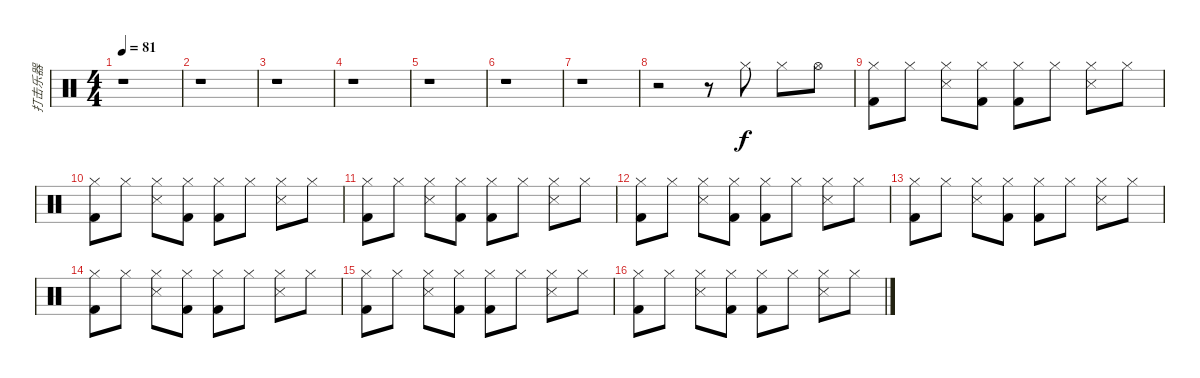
\track ("打击乐器" "打击乐器") {instrument percussion}
\staff {score}
\articulation defaults
\ts (4 4)
\tempo 81
\clef neutral
\ks c
r.1{dy f} |
r.1 |
r.1 |
r.1 |
r.1 |
r.1 |
r.1 |
r.2 r.8 "Hi-Hat (closed)".8 "Hi-Hat (closed)".8 "Hi-Hat (open)".8 |
("Kick (hit) 2" "Hi-Hat (closed)").8 "Hi-Hat (closed)".8 ("Snare (side stick) 3" "Hi-Hat (closed)").8 ("Kick (hit) 2" "Hi-Hat (closed)").8 ("Kick (hit) 2" "Hi-Hat (closed)").8 "Hi-Hat (closed)".8 ("Snare (side stick) 3" "Hi-Hat (closed)").8 "Hi-Hat (closed)".8 |
("Kick (hit) 2" "Hi-Hat (closed)").8 "Hi-Hat (closed)".8 ("Snare (side stick) 3" "Hi-Hat (closed)").8 ("Kick (hit) 2" "Hi-Hat (closed)").8 ("Kick (hit) 2" "Hi-Hat (closed)").8 "Hi-Hat (closed)".8 ("Snare (side stick) 3" "Hi-Hat (closed)").8 "Hi-Hat (closed)".8 |
("Kick (hit) 2" "Hi-Hat (closed)").8 "Hi-Hat (closed)".8 ("Snare (side stick) 3" "Hi-Hat (closed)").8 ("Kick (hit) 2" "Hi-Hat (closed)").8 ("Kick (hit) 2" "Hi-Hat (closed)").8 "Hi-Hat (closed)".8 ("Snare (side stick) 3" "Hi-Hat (closed)").8 "Hi-Hat (closed)".8 |
("Kick (hit) 2" "Hi-Hat (closed)").8 "Hi-Hat (closed)".8 ("Snare (side stick) 3" "Hi-Hat (closed)").8 ("Kick (hit) 2" "Hi-Hat (closed)").8 ("Kick (hit) 2" "Hi-Hat (closed)").8 "Hi-Hat (closed)".8 ("Snare (side stick) 3" "Hi-Hat (closed)").8 "Hi-Hat (closed)".8 |
("Kick (hit) 2" "Hi-Hat (closed)").8 "Hi-Hat (closed)".8 ("Snare (side stick) 3" "Hi-Hat (closed)").8 ("Kick (hit) 2" "Hi-Hat (closed)").8 ("Kick (hit) 2" "Hi-Hat (closed)").8 "Hi-Hat (closed)".8 ("Snare (side stick) 3" "Hi-Hat (closed)").8 "Hi-Hat (closed)".8 |
("Kick (hit) 2" "Hi-Hat (closed)").8 "Hi-Hat (closed)".8 ("Snare (side stick) 3" "Hi-Hat (closed)").8 ("Kick (hit) 2" "Hi-Hat (closed)").8 ("Kick (hit) 2" "Hi-Hat (closed)").8 "Hi-Hat (closed)".8 ("Snare (side stick) 3" "Hi-Hat (closed)").8 "Hi-Hat (closed)".8 |
("Kick (hit) 2" "Hi-Hat (closed)").8 "Hi-Hat (closed)".8 ("Snare (side stick) 3" "Hi-Hat (closed)").8 ("Kick (hit) 2" "Hi-Hat (closed)").8 ("Kick (hit) 2" "Hi-Hat (closed)").8 "Hi-Hat (closed)".8 ("Snare (side stick) 3" "Hi-Hat (closed)").8 "Hi-Hat (closed)".8 |
("Kick (hit) 2" "Hi-Hat (closed)").8 "Hi-Hat (closed)".8 ("Snare (side stick) 3" "Hi-Hat (closed)").8 ("Kick (hit) 2" "Hi-Hat (closed)").8 ("Kick (hit) 2" "Hi-Hat (closed)").8 "Hi-Hat (closed)".8 ("Snare (side stick) 3" "Hi-Hat (closed)").8 "Hi-Hat (closed)".8
